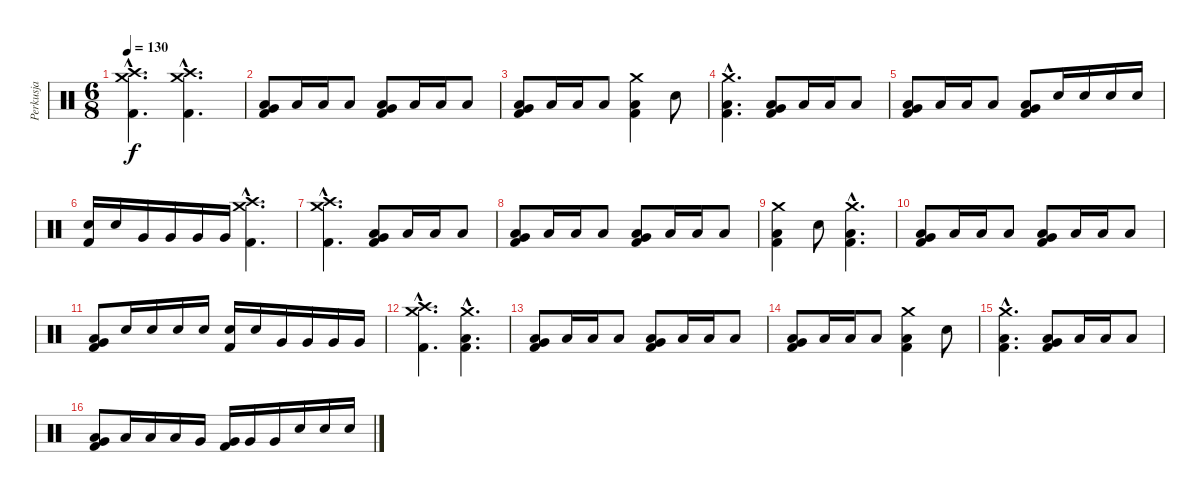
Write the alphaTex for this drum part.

\track ("Perkusja" "Perkusja") {instrument percussion}
\staff {score}
\articulation defaults
\ts (6 8)
\tempo 130
\clef neutral
\ks c
("Crash high (hit)"{hac} "Crash medium (hit)"{hac} "Kick (hit) 2"{hac}).4{d dy f} ("Crash high (hit)"{hac} "Crash medium (hit)"{hac} "Kick (hit) 2"{hac}).4{d} |
("Very Low Tom (hit)" "Low Floor Tom (hit)" "Kick (hit) 2").8 "Low Floor Tom (hit)".16 "Low Floor Tom (hit)".16 "Low Floor Tom (hit)".8 ("Very Low Tom (hit)" "Low Floor Tom (hit)" "Kick (hit) 2").8 "Low Floor Tom (hit)".16 "Low Floor Tom (hit)".16 "Low Floor Tom (hit)".8 |
("Very Low Tom (hit)" "Low Floor Tom (hit)" "Kick (hit) 2").8 "Low Floor Tom (hit)".16 "Low Floor Tom (hit)".16 "Low Floor Tom (hit)".8 ("Crash medium (hit)" "Low Floor Tom (hit)" "Kick (hit) 2").4 "Electric Snare (hit)".8 |
("Crash medium (hit)"{hac} "Low Floor Tom (hit)"{hac} "Kick (hit) 2"{hac}).4{d} ("Very Low Tom (hit)" "Low Floor Tom (hit)" "Kick (hit) 2").8 "Low Floor Tom (hit)".16 "Low Floor Tom (hit)".16 "Low Floor Tom (hit)".8 |
("Very Low Tom (hit)" "Low Floor Tom (hit)" "Kick (hit) 2").8 "Low Floor Tom (hit)".16 "Low Floor Tom (hit)".16 "Low Floor Tom (hit)".8 ("Very Low Tom (hit)" "Low Floor Tom (hit)" "Kick (hit) 2").8 "Electric Snare (hit)".16 "Electric Snare (hit)".16 "Electric Snare (hit)".16 "Electric Snare (hit)".16 |
("Electric Snare (hit)" "Kick (hit) 2").16 "Electric Snare (hit)".16 "Very Low Tom (hit)".16 "Very Low Tom (hit)".16 "Very Low Tom (hit)".16 "Very Low Tom (hit)".16 ("Crash high (hit)"{hac} "Crash medium (hit)"{hac} "Kick (hit) 2"{hac}).4{d} |
("Crash high (hit)"{hac} "Crash medium (hit)"{hac} "Kick (hit) 2"{hac}).4{d} ("Very Low Tom (hit)" "Low Floor Tom (hit)" "Kick (hit) 2").8 "Low Floor Tom (hit)".16 "Low Floor Tom (hit)".16 "Low Floor Tom (hit)".8 |
("Very Low Tom (hit)" "Low Floor Tom (hit)" "Kick (hit) 2").8 "Low Floor Tom (hit)".16 "Low Floor Tom (hit)".16 "Low Floor Tom (hit)".8 ("Very Low Tom (hit)" "Low Floor Tom (hit)" "Kick (hit) 2").8 "Low Floor Tom (hit)".16 "Low Floor Tom (hit)".16 "Low Floor Tom (hit)".8 |
("Crash medium (hit)" "Low Floor Tom (hit)" "Kick (hit) 2").4 "Electric Snare (hit)".8 ("Crash medium (hit)"{hac} "Low Floor Tom (hit)"{hac} "Kick (hit) 2"{hac}).4{d} |
("Very Low Tom (hit)" "Low Floor Tom (hit)" "Kick (hit) 2").8 "Low Floor Tom (hit)".16 "Low Floor Tom (hit)".16 "Low Floor Tom (hit)".8 ("Very Low Tom (hit)" "Low Floor Tom (hit)" "Kick (hit) 2").8 "Low Floor Tom (hit)".16 "Low Floor Tom (hit)".16 "Low Floor Tom (hit)".8 |
("Very Low Tom (hit)" "Low Floor Tom (hit)" "Kick (hit) 2").8 "Electric Snare (hit)".16 "Electric Snare (hit)".16 "Electric Snare (hit)".16 "Electric Snare (hit)".16 ("Electric Snare (hit)" "Kick (hit) 2").16 "Electric Snare (hit)".16 "Very Low Tom (hit)".16 "Very Low Tom (hit)".16 "Very Low Tom (hit)".16 "Very Low Tom (hit)".16 |
("Crash high (hit)"{hac} "Crash medium (hit)"{hac} "Kick (hit) 2"{hac}).4{d} ("Crash medium (hit)"{hac} "Low Floor Tom (hit)"{hac} "Kick (hit) 2"{hac}).4{d} |
("Very Low Tom (hit)" "Low Floor Tom (hit)" "Kick (hit) 2").8 "Low Floor Tom (hit)".16 "Low Floor Tom (hit)".16 "Low Floor Tom (hit)".8 ("Very Low Tom (hit)" "Low Floor Tom (hit)" "Kick (hit) 2").8 "Low Floor Tom (hit)".16 "Low Floor Tom (hit)".16 "Low Floor Tom (hit)".8 |
("Very Low Tom (hit)" "Low Floor Tom (hit)" "Kick (hit) 2").8 "Low Floor Tom (hit)".16 "Low Floor Tom (hit)".16 "Low Floor Tom (hit)".8 ("Crash medium (hit)" "Low Floor Tom (hit)" "Kick (hit) 2").4 "Electric Snare (hit)".8 |
("Crash medium (hit)"{hac} "Low Floor Tom (hit)"{hac} "Kick (hit) 2"{hac}).4{d} ("Very Low Tom (hit)" "Low Floor Tom (hit)" "Kick (hit) 2").8 "Low Floor Tom (hit)".16 "Low Floor Tom (hit)".16 "Low Floor Tom (hit)".8 |
("Very Low Tom (hit)" "Low Floor Tom (hit)" "Kick (hit) 2").8 "Low Floor Tom (hit)".16 "Low Floor Tom (hit)".16 "Low Floor Tom (hit)".16 "Very Low Tom (hit)".16 ("Very Low Tom (hit)" "Kick (hit) 2").16 "Very Low Tom (hit)".16 "Very Low Tom (hit)".16 "Electric Snare (hit)".16 "Electric Snare (hit)".16 "Electric Snare (hit)".16
